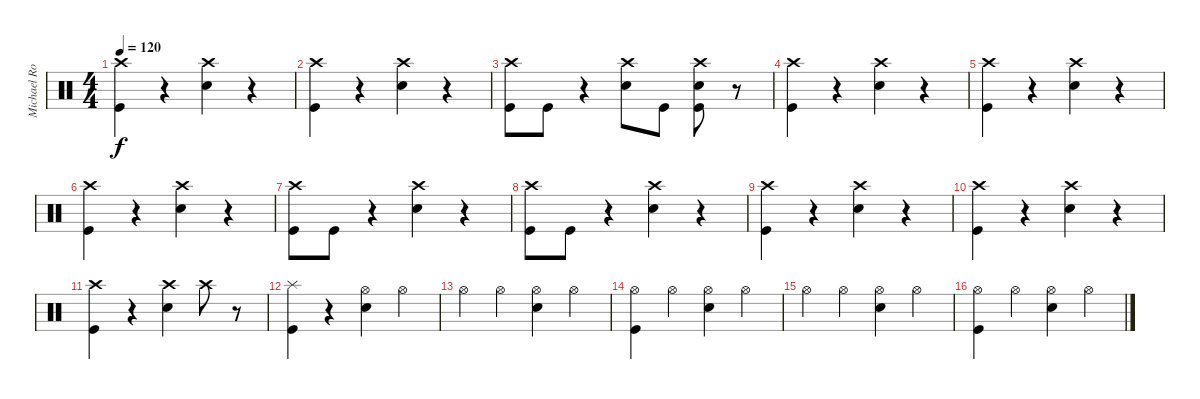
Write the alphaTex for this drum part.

\track ("Michael Roponus " "Michael Ro") {instrument percussion}
\staff {score}
\articulation defaults
\ts (4 4)
\tempo 120
\clef neutral
\ks c
("Crash high (hit)" "Kick (hit)").4{dy f} r.4 ("Crash high (hit)" "Snare (hit) 2").4 r.4 |
("Crash high (hit)" "Kick (hit)").4 r.4 ("Crash high (hit)" "Snare (hit) 2").4 r.4 |
("Crash high (hit)" "Kick (hit)").8 "Kick (hit)".8 r.4 ("Crash high (hit)" "Snare (hit) 2").8 "Kick (hit)".8 ("Crash high (hit)" "Kick (hit)" "Snare (hit) 2").8 r.8 |
("Crash high (hit)" "Kick (hit)").4 r.4 ("Crash high (hit)" "Snare (hit) 2").4 r.4 |
("Crash high (hit)" "Kick (hit)").4 r.4 ("Crash high (hit)" "Snare (hit) 2").4 r.4 |
("Crash high (hit)" "Kick (hit)").4 r.4 ("Crash high (hit)" "Snare (hit) 2").4 r.4 |
("Crash high (hit)" "Kick (hit)").8 "Kick (hit)".8 r.4 ("Crash high (hit)" "Snare (hit) 2").4 r.4 |
("Crash high (hit)" "Kick (hit)").8 "Kick (hit)".8 r.4 ("Crash high (hit)" "Snare (hit) 2").4 r.4 |
("Crash high (hit)" "Kick (hit)").4 r.4 ("Crash high (hit)" "Snare (hit) 2").4 r.4 |
("Crash high (hit)" "Kick (hit)").4 r.4 ("Crash high (hit)" "Snare (hit) 2").4 r.4 |
("Crash high (hit)" "Kick (hit)").4 r.4 ("Crash high (hit)" "Snare (hit) 2").4 "Crash high (hit)".8 r.8 |
("Splash (hit)" "Kick (hit)").4 r.4 ("Hi-Hat (open)" "Snare (hit) 2").4 "Hi-Hat (open)".4 |
"Hi-Hat (open)".4 "Hi-Hat (open)".4 ("Hi-Hat (open)" "Snare (hit) 2").4 "Hi-Hat (open)".4 |
("Hi-Hat (open)" "Kick (hit)").4 "Hi-Hat (open)".4 ("Hi-Hat (open)" "Snare (hit) 2").4 "Hi-Hat (open)".4 |
"Hi-Hat (open)".4 "Hi-Hat (open)".4 ("Hi-Hat (open)" "Snare (hit) 2").4 "Hi-Hat (open)".4 |
("Hi-Hat (open)" "Kick (hit)").4 "Hi-Hat (open)".4 ("Hi-Hat (open)" "Snare (hit) 2").4 "Hi-Hat (open)".4
